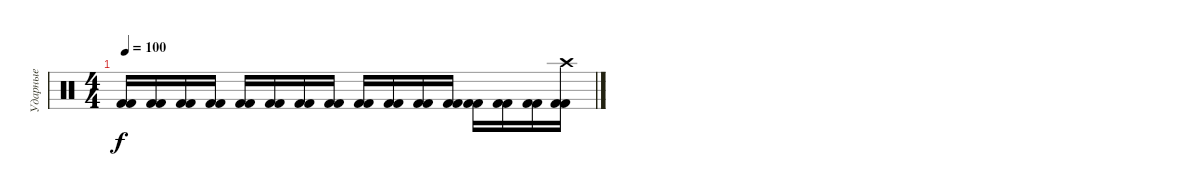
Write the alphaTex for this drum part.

\track ("Ударные" "Ударные") {instrument percussion}
\staff {score}
\articulation defaults
\ts (4 4)
\tempo 100
\clef neutral
\ks c
("Kick (hit) 2" "Kick (hit) 2").16{dy f} ("Kick (hit) 2" "Kick (hit) 2").16 ("Kick (hit) 2" "Kick (hit) 2").16 ("Kick (hit) 2" "Kick (hit) 2").16 ("Kick (hit) 2" "Kick (hit) 2").16 ("Kick (hit) 2" "Kick (hit) 2").16 ("Kick (hit) 2" "Kick (hit) 2").16 ("Kick (hit) 2" "Kick (hit) 2").16 ("Kick (hit) 2" "Kick (hit) 2").16 ("Kick (hit) 2" "Kick (hit) 2").16 ("Kick (hit) 2" "Kick (hit) 2").16 ("Kick (hit) 2" "Kick (hit) 2").16 ("Kick (hit) 2" "Kick (hit) 2").16 ("Kick (hit) 2" "Kick (hit) 2").16 ("Kick (hit) 2" "Kick (hit) 2").16 ("Kick (hit) 2" "Kick (hit) 2" "Crash high (hit)").16
